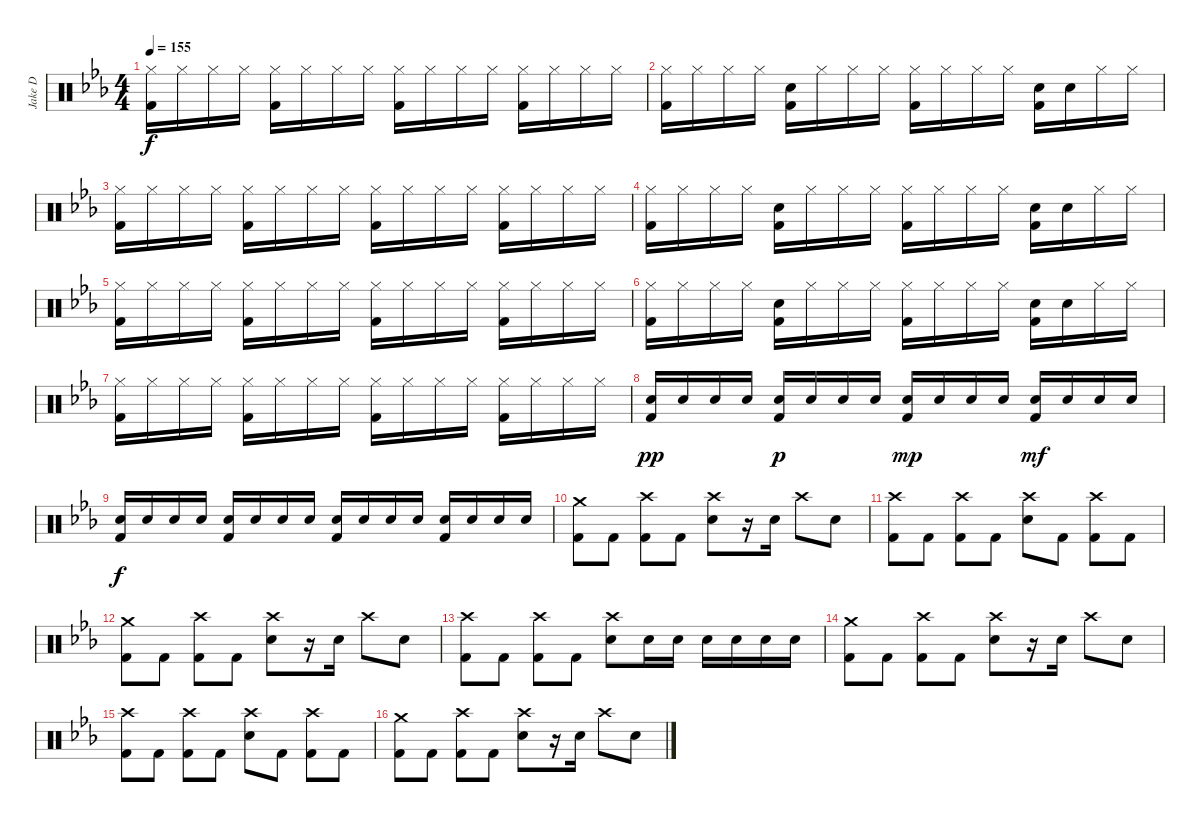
\track ("Jake D" "Jake D") {instrument percussion}
\staff {score}
\articulation defaults
\ts (4 4)
\tempo 155
\clef neutral
\ks cminor
("Hi-Hat (closed)" "Kick (hit) 2").16{dy f} "Hi-Hat (closed)".16 "Hi-Hat (closed)".16 "Hi-Hat (closed)".16 ("Hi-Hat (closed)" "Kick (hit) 2").16 "Hi-Hat (closed)".16 "Hi-Hat (closed)".16 "Hi-Hat (closed)".16 ("Hi-Hat (closed)" "Kick (hit) 2").16 "Hi-Hat (closed)".16 "Hi-Hat (closed)".16 "Hi-Hat (closed)".16 ("Hi-Hat (closed)" "Kick (hit) 2").16 "Hi-Hat (closed)".16 "Hi-Hat (closed)".16 "Hi-Hat (closed)".16 |
("Hi-Hat (closed)" "Kick (hit) 2").16 "Hi-Hat (closed)".16 "Hi-Hat (closed)".16 "Hi-Hat (closed)".16 ("Electric Snare (hit)" "Kick (hit) 2").16 "Hi-Hat (closed)".16 "Hi-Hat (closed)".16 "Hi-Hat (closed)".16 ("Hi-Hat (closed)" "Kick (hit) 2").16 "Hi-Hat (closed)".16 "Hi-Hat (closed)".16 "Hi-Hat (closed)".16 ("Electric Snare (hit)" "Kick (hit) 2").16 "Electric Snare (hit)".16 "Hi-Hat (closed)".16 "Hi-Hat (closed)".16 |
("Hi-Hat (closed)" "Kick (hit) 2").16 "Hi-Hat (closed)".16 "Hi-Hat (closed)".16 "Hi-Hat (closed)".16 ("Hi-Hat (closed)" "Kick (hit) 2").16 "Hi-Hat (closed)".16 "Hi-Hat (closed)".16 "Hi-Hat (closed)".16 ("Hi-Hat (closed)" "Kick (hit) 2").16 "Hi-Hat (closed)".16 "Hi-Hat (closed)".16 "Hi-Hat (closed)".16 ("Hi-Hat (closed)" "Kick (hit) 2").16 "Hi-Hat (closed)".16 "Hi-Hat (closed)".16 "Hi-Hat (closed)".16 |
("Hi-Hat (closed)" "Kick (hit) 2").16 "Hi-Hat (closed)".16 "Hi-Hat (closed)".16 "Hi-Hat (closed)".16 ("Electric Snare (hit)" "Kick (hit) 2").16 "Hi-Hat (closed)".16 "Hi-Hat (closed)".16 "Hi-Hat (closed)".16 ("Hi-Hat (closed)" "Kick (hit) 2").16 "Hi-Hat (closed)".16 "Hi-Hat (closed)".16 "Hi-Hat (closed)".16 ("Electric Snare (hit)" "Kick (hit) 2").16 "Electric Snare (hit)".16 "Hi-Hat (closed)".16 "Hi-Hat (closed)".16 |
("Hi-Hat (closed)" "Kick (hit) 2").16 "Hi-Hat (closed)".16 "Hi-Hat (closed)".16 "Hi-Hat (closed)".16 ("Hi-Hat (closed)" "Kick (hit) 2").16 "Hi-Hat (closed)".16 "Hi-Hat (closed)".16 "Hi-Hat (closed)".16 ("Hi-Hat (closed)" "Kick (hit) 2").16 "Hi-Hat (closed)".16 "Hi-Hat (closed)".16 "Hi-Hat (closed)".16 ("Hi-Hat (closed)" "Kick (hit) 2").16 "Hi-Hat (closed)".16 "Hi-Hat (closed)".16 "Hi-Hat (closed)".16 |
("Hi-Hat (closed)" "Kick (hit) 2").16 "Hi-Hat (closed)".16 "Hi-Hat (closed)".16 "Hi-Hat (closed)".16 ("Electric Snare (hit)" "Kick (hit) 2").16 "Hi-Hat (closed)".16 "Hi-Hat (closed)".16 "Hi-Hat (closed)".16 ("Hi-Hat (closed)" "Kick (hit) 2").16 "Hi-Hat (closed)".16 "Hi-Hat (closed)".16 "Hi-Hat (closed)".16 ("Electric Snare (hit)" "Kick (hit) 2").16 "Electric Snare (hit)".16 "Hi-Hat (closed)".16 "Hi-Hat (closed)".16 |
("Hi-Hat (closed)" "Kick (hit) 2").16 "Hi-Hat (closed)".16 "Hi-Hat (closed)".16 "Hi-Hat (closed)".16 ("Hi-Hat (closed)" "Kick (hit) 2").16 "Hi-Hat (closed)".16 "Hi-Hat (closed)".16 "Hi-Hat (closed)".16 ("Hi-Hat (closed)" "Kick (hit) 2").16 "Hi-Hat (closed)".16 "Hi-Hat (closed)".16 "Hi-Hat (closed)".16 ("Hi-Hat (closed)" "Kick (hit) 2").16 "Hi-Hat (closed)".16 "Hi-Hat (closed)".16 "Hi-Hat (closed)".16 |
("Electric Snare (hit)" "Kick (hit) 2").16{dy pp} "Electric Snare (hit)".16 "Electric Snare (hit)".16 "Electric Snare (hit)".16 ("Electric Snare (hit)" "Kick (hit) 2").16{dy p} "Electric Snare (hit)".16 "Electric Snare (hit)".16 "Electric Snare (hit)".16 ("Electric Snare (hit)" "Kick (hit) 2").16{dy mp} "Electric Snare (hit)".16 "Electric Snare (hit)".16 "Electric Snare (hit)".16 ("Electric Snare (hit)" "Kick (hit) 2").16{dy mf} "Electric Snare (hit)".16 "Electric Snare (hit)".16 "Electric Snare (hit)".16 |
("Electric Snare (hit)" "Kick (hit) 2").16{dy f} "Electric Snare (hit)".16 "Electric Snare (hit)".16 "Electric Snare (hit)".16 ("Electric Snare (hit)" "Kick (hit) 2").16 "Electric Snare (hit)".16 "Electric Snare (hit)".16 "Electric Snare (hit)".16 ("Electric Snare (hit)" "Kick (hit) 2").16 "Electric Snare (hit)".16 "Electric Snare (hit)".16 "Electric Snare (hit)".16 ("Electric Snare (hit)" "Kick (hit) 2").16 "Electric Snare (hit)".16 "Electric Snare (hit)".16 "Electric Snare (hit)".16 |
("Crash medium (hit)" "Kick (hit) 2").8 "Kick (hit) 2".8 ("Crash high (hit)" "Kick (hit) 2").8 "Kick (hit) 2".8 ("Crash high (hit)" "Electric Snare (hit)").8 r.16 "Electric Snare (hit)".16 "Crash high (hit)".8 "Electric Snare (hit)".8 |
("Crash high (hit)" "Kick (hit) 2").8 "Kick (hit) 2".8 ("Crash high (hit)" "Kick (hit) 2").8 "Kick (hit) 2".8 ("Crash high (hit)" "Electric Snare (hit)").8 "Kick (hit) 2".8 ("Crash high (hit)" "Kick (hit) 2").8 "Kick (hit) 2".8 |
("Crash medium (hit)" "Kick (hit) 2").8 "Kick (hit) 2".8 ("Crash high (hit)" "Kick (hit) 2").8 "Kick (hit) 2".8 ("Crash high (hit)" "Electric Snare (hit)").8 r.16 "Electric Snare (hit)".16 "Crash high (hit)".8 "Electric Snare (hit)".8 |
("Crash high (hit)" "Kick (hit) 2").8 "Kick (hit) 2".8 ("Crash high (hit)" "Kick (hit) 2").8 "Kick (hit) 2".8 ("Crash high (hit)" "Electric Snare (hit)").8 "Electric Snare (hit)".16 "Electric Snare (hit)".16 "Electric Snare (hit)".16 "Electric Snare (hit)".16 "Electric Snare (hit)".16 "Electric Snare (hit)".16 |
("Crash medium (hit)" "Kick (hit) 2").8 "Kick (hit) 2".8 ("Crash high (hit)" "Kick (hit) 2").8 "Kick (hit) 2".8 ("Crash high (hit)" "Electric Snare (hit)").8 r.16 "Electric Snare (hit)".16 "Crash high (hit)".8 "Electric Snare (hit)".8 |
("Crash high (hit)" "Kick (hit) 2").8 "Kick (hit) 2".8 ("Crash high (hit)" "Kick (hit) 2").8 "Kick (hit) 2".8 ("Crash high (hit)" "Electric Snare (hit)").8 "Kick (hit) 2".8 ("Crash high (hit)" "Kick (hit) 2").8 "Kick (hit) 2".8 |
("Crash medium (hit)" "Kick (hit) 2").8 "Kick (hit) 2".8 ("Crash high (hit)" "Kick (hit) 2").8 "Kick (hit) 2".8 ("Crash high (hit)" "Electric Snare (hit)").8 r.16 "Electric Snare (hit)".16 "Crash high (hit)".8 "Electric Snare (hit)".8
